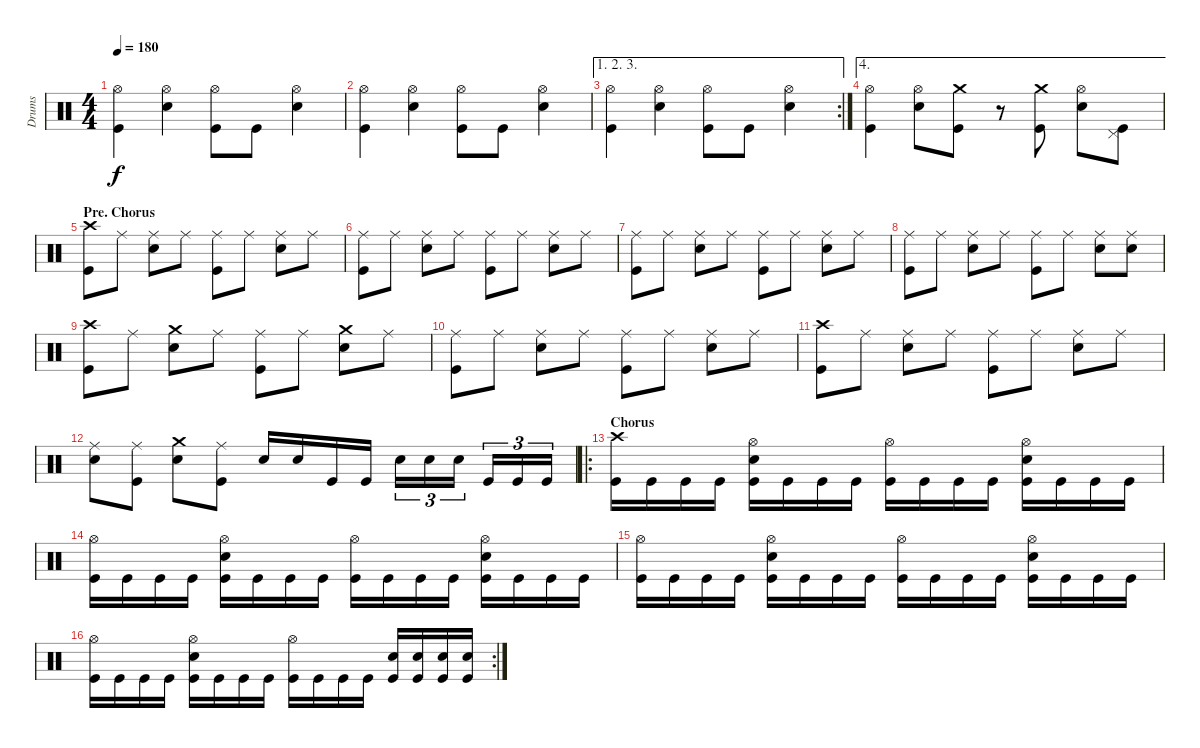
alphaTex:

\track ("Drums" "Drums") {instrument percussion}
\staff {score}
\articulation defaults
\ts (4 4)
\tempo 180
\clef neutral
\ks c
("Hi-Hat (open)" "Kick (hit)").4{dy f} ("Hi-Hat (open)" "Snare (hit) 2").4 ("Hi-Hat (open)" "Kick (hit)").8 "Kick (hit)".8 ("Hi-Hat (open)" "Snare (hit) 2").4 |
("Hi-Hat (open)" "Kick (hit)").4 ("Hi-Hat (open)" "Snare (hit) 2").4 ("Hi-Hat (open)" "Kick (hit)").8 "Kick (hit)".8 ("Hi-Hat (open)" "Snare (hit) 2").4 |
\ae (1 2 3)
\rc 2
("Hi-Hat (open)" "Kick (hit)").4 ("Hi-Hat (open)" "Snare (hit) 2").4 ("Hi-Hat (open)" "Kick (hit)").8 "Kick (hit)".8 ("Hi-Hat (open)" "Snare (hit) 2").4 |
\ae 4
("Hi-Hat (open)" "Kick (hit)").4 ("Hi-Hat (open)" "Snare (hit) 2").8 ("Crash medium (hit)" "Kick (hit)").8 r.8 ("Crash medium (hit)" "Kick (hit)").8 ("Hi-Hat (open)" "Snare (hit) 2").8 ("Pedal Hi-Hat (hit)" "Kick (hit)").8 |
\section ("" "Pre. Chorus")
("Crash high (hit)" "Kick (hit)").8 "Ride (middle)".8 ("Ride (middle)" "Snare (hit) 2").8 "Ride (middle)".8 ("Ride (middle)" "Kick (hit)").8 "Ride (middle)".8 ("Ride (middle)" "Snare (hit) 2").8 "Ride (middle)".8 |
("Ride (middle)" "Kick (hit)").8 "Ride (middle)".8 ("Ride (middle)" "Snare (hit) 2").8 "Ride (middle)".8 ("Ride (middle)" "Kick (hit)").8 "Ride (middle)".8 ("Ride (middle)" "Snare (hit) 2").8 "Ride (middle)".8 |
("Ride (middle)" "Kick (hit)").8 "Ride (middle)".8 ("Ride (middle)" "Snare (hit) 2").8 "Ride (middle)".8 ("Ride (middle)" "Kick (hit)").8 "Ride (middle)".8 ("Ride (middle)" "Snare (hit) 2").8 "Ride (middle)".8 |
("Ride (middle)" "Kick (hit)").8 "Ride (middle)".8 ("Ride (middle)" "Snare (hit) 2").8 "Ride (middle)".8 ("Ride (middle)" "Kick (hit)").8 "Ride (middle)".8 ("Ride (middle)" "Snare (hit) 2").8 ("Ride (middle)" "Snare (hit) 2").8 |
("Crash high (hit)" "Kick (hit)").8 "Ride (middle)".8 ("Crash medium (hit)" "Snare (hit) 2").8 "Ride (middle)".8 ("Ride (middle)" "Kick (hit)").8 "Ride (middle)".8 ("Crash medium (hit)" "Snare (hit) 2").8 "Ride (middle)".8 |
("Ride (middle)" "Kick (hit)").8 "Ride (middle)".8 ("Ride (middle)" "Snare (hit) 2").8 "Ride (middle)".8 ("Ride (middle)" "Kick (hit)").8 "Ride (middle)".8 ("Ride (middle)" "Snare (hit) 2").8 "Ride (middle)".8 |
("Crash high (hit)" "Kick (hit)").8 "Ride (middle)".8 ("Ride (middle)" "Snare (hit) 2").8 "Ride (middle)".8 ("Ride (middle)" "Kick (hit)").8 "Ride (middle)".8 ("Ride (middle)" "Snare (hit) 2").8 "Ride (middle)".8 |
("Ride (middle)" "Snare (hit) 2").8 ("Ride (middle)" "Kick (hit)").8 ("Crash medium (hit)" "Snare (hit) 2").8 ("Ride (middle)" "Kick (hit)").8 "Snare (hit) 2".16 "Snare (hit) 2".16 "Kick (hit)".16 "Kick (hit)".16 "Snare (hit) 2".16{tu (3 2)} "Snare (hit) 2".16{tu (3 2)} "Snare (hit) 2".16{tu (3 2)} "Kick (hit)".16{tu (3 2)} "Kick (hit)".16{tu (3 2)} "Kick (hit)".16{tu (3 2)} |
\ro
\section ("" "Chorus")
("Crash high (hit)" "Kick (hit)").16 "Kick (hit)".16 "Kick (hit)".16 "Kick (hit)".16 ("Hi-Hat (open)" "Snare (hit) 2" "Kick (hit)").16 "Kick (hit)".16 "Kick (hit)".16 "Kick (hit)".16 ("Hi-Hat (open)" "Kick (hit)").16 "Kick (hit)".16 "Kick (hit)".16 "Kick (hit)".16 ("Hi-Hat (open)" "Snare (hit) 2" "Kick (hit)").16 "Kick (hit)".16 "Kick (hit)".16 "Kick (hit)".16 |
("Hi-Hat (open)" "Kick (hit)").16 "Kick (hit)".16 "Kick (hit)".16 "Kick (hit)".16 ("Hi-Hat (open)" "Snare (hit) 2" "Kick (hit)").16 "Kick (hit)".16 "Kick (hit)".16 "Kick (hit)".16 ("Hi-Hat (open)" "Kick (hit)").16 "Kick (hit)".16 "Kick (hit)".16 "Kick (hit)".16 ("Hi-Hat (open)" "Snare (hit) 2" "Kick (hit)").16 "Kick (hit)".16 "Kick (hit)".16 "Kick (hit)".16 |
("Hi-Hat (open)" "Kick (hit)").16 "Kick (hit)".16 "Kick (hit)".16 "Kick (hit)".16 ("Hi-Hat (open)" "Snare (hit) 2" "Kick (hit)").16 "Kick (hit)".16 "Kick (hit)".16 "Kick (hit)".16 ("Hi-Hat (open)" "Kick (hit)").16 "Kick (hit)".16 "Kick (hit)".16 "Kick (hit)".16 ("Hi-Hat (open)" "Snare (hit) 2" "Kick (hit)").16 "Kick (hit)".16 "Kick (hit)".16 "Kick (hit)".16 |
\rc 2
("Hi-Hat (open)" "Kick (hit)").16 "Kick (hit)".16 "Kick (hit)".16 "Kick (hit)".16 ("Hi-Hat (open)" "Snare (hit) 2" "Kick (hit)").16 "Kick (hit)".16 "Kick (hit)".16 "Kick (hit)".16 ("Hi-Hat (open)" "Kick (hit)").16 "Kick (hit)".16 "Kick (hit)".16 "Kick (hit)".16 ("Snare (hit) 2" "Kick (hit)").16 ("Snare (hit) 2" "Kick (hit)").16 ("Snare (hit) 2" "Kick (hit)").16 ("Snare (hit) 2" "Kick (hit)").16
